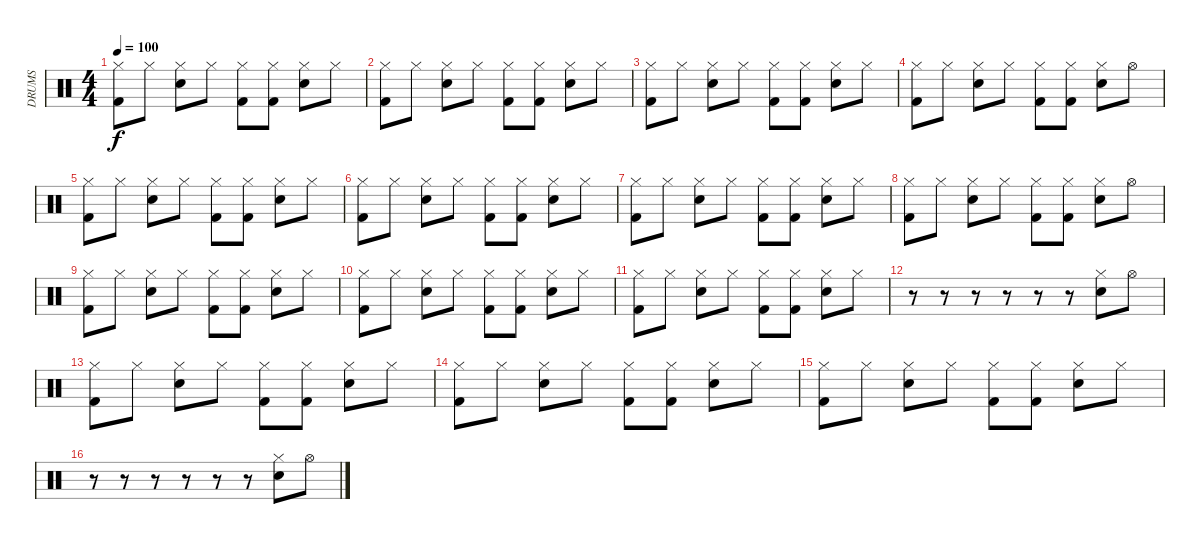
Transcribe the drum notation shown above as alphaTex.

\track ("DRUMS" "DRUMS") {instrument percussion}
\staff {score}
\articulation defaults
\ts (4 4)
\tempo 100
\clef neutral
\ks c
("Hi-Hat (closed)" "Kick (hit) 2").8{dy f} "Hi-Hat (closed)".8 ("Hi-Hat (closed)" "Snare (hit) 2").8 "Hi-Hat (closed)".8 ("Hi-Hat (closed)" "Kick (hit) 2").8 ("Hi-Hat (closed)" "Kick (hit) 2").8 ("Hi-Hat (closed)" "Snare (hit) 2").8 "Hi-Hat (closed)".8 |
("Hi-Hat (closed)" "Kick (hit) 2").8 "Hi-Hat (closed)".8 ("Hi-Hat (closed)" "Snare (hit) 2").8 "Hi-Hat (closed)".8 ("Hi-Hat (closed)" "Kick (hit) 2").8 ("Hi-Hat (closed)" "Kick (hit) 2").8 ("Hi-Hat (closed)" "Snare (hit) 2").8 "Hi-Hat (closed)".8 |
("Hi-Hat (closed)" "Kick (hit) 2").8 "Hi-Hat (closed)".8 ("Hi-Hat (closed)" "Snare (hit) 2").8 "Hi-Hat (closed)".8 ("Hi-Hat (closed)" "Kick (hit) 2").8 ("Hi-Hat (closed)" "Kick (hit) 2").8 ("Hi-Hat (closed)" "Snare (hit) 2").8 "Hi-Hat (closed)".8 |
("Hi-Hat (closed)" "Kick (hit) 2").8 "Hi-Hat (closed)".8 ("Hi-Hat (closed)" "Snare (hit) 2").8 "Hi-Hat (closed)".8 ("Hi-Hat (closed)" "Kick (hit) 2").8 ("Hi-Hat (closed)" "Kick (hit) 2").8 ("Hi-Hat (closed)" "Snare (hit) 2").8 "Hi-Hat (open)".8 |
("Hi-Hat (closed)" "Kick (hit) 2").8 "Hi-Hat (closed)".8 ("Hi-Hat (closed)" "Snare (hit) 2").8 "Hi-Hat (closed)".8 ("Hi-Hat (closed)" "Kick (hit) 2").8 ("Hi-Hat (closed)" "Kick (hit) 2").8 ("Hi-Hat (closed)" "Snare (hit) 2").8 "Hi-Hat (closed)".8 |
("Hi-Hat (closed)" "Kick (hit) 2").8 "Hi-Hat (closed)".8 ("Hi-Hat (closed)" "Snare (hit) 2").8 "Hi-Hat (closed)".8 ("Hi-Hat (closed)" "Kick (hit) 2").8 ("Hi-Hat (closed)" "Kick (hit) 2").8 ("Hi-Hat (closed)" "Snare (hit) 2").8 "Hi-Hat (closed)".8 |
("Hi-Hat (closed)" "Kick (hit) 2").8 "Hi-Hat (closed)".8 ("Hi-Hat (closed)" "Snare (hit) 2").8 "Hi-Hat (closed)".8 ("Hi-Hat (closed)" "Kick (hit) 2").8 ("Hi-Hat (closed)" "Kick (hit) 2").8 ("Hi-Hat (closed)" "Snare (hit) 2").8 "Hi-Hat (closed)".8 |
("Hi-Hat (closed)" "Kick (hit) 2").8 "Hi-Hat (closed)".8 ("Hi-Hat (closed)" "Snare (hit) 2").8 "Hi-Hat (closed)".8 ("Hi-Hat (closed)" "Kick (hit) 2").8 ("Hi-Hat (closed)" "Kick (hit) 2").8 ("Hi-Hat (closed)" "Snare (hit) 2").8 "Hi-Hat (open)".8 |
("Hi-Hat (closed)" "Kick (hit) 2").8 "Hi-Hat (closed)".8 ("Hi-Hat (closed)" "Snare (hit) 2").8 "Hi-Hat (closed)".8 ("Hi-Hat (closed)" "Kick (hit) 2").8 ("Hi-Hat (closed)" "Kick (hit) 2").8 ("Hi-Hat (closed)" "Snare (hit) 2").8 "Hi-Hat (closed)".8 |
("Hi-Hat (closed)" "Kick (hit) 2").8 "Hi-Hat (closed)".8 ("Hi-Hat (closed)" "Snare (hit) 2").8 "Hi-Hat (closed)".8 ("Hi-Hat (closed)" "Kick (hit) 2").8 ("Hi-Hat (closed)" "Kick (hit) 2").8 ("Hi-Hat (closed)" "Snare (hit) 2").8 "Hi-Hat (closed)".8 |
("Hi-Hat (closed)" "Kick (hit) 2").8 "Hi-Hat (closed)".8 ("Hi-Hat (closed)" "Snare (hit) 2").8 "Hi-Hat (closed)".8 ("Hi-Hat (closed)" "Kick (hit) 2").8 ("Hi-Hat (closed)" "Kick (hit) 2").8 ("Hi-Hat (closed)" "Snare (hit) 2").8 "Hi-Hat (closed)".8 |
r.8 r.8 r.8 r.8 r.8 r.8 ("Hi-Hat (closed)" "Snare (hit) 2").8 "Hi-Hat (open)".8 |
("Hi-Hat (closed)" "Kick (hit) 2").8 "Hi-Hat (closed)".8 ("Hi-Hat (closed)" "Snare (hit) 2").8 "Hi-Hat (closed)".8 ("Hi-Hat (closed)" "Kick (hit) 2").8 ("Hi-Hat (closed)" "Kick (hit) 2").8 ("Hi-Hat (closed)" "Snare (hit) 2").8 "Hi-Hat (closed)".8 |
("Hi-Hat (closed)" "Kick (hit) 2").8 "Hi-Hat (closed)".8 ("Hi-Hat (closed)" "Snare (hit) 2").8 "Hi-Hat (closed)".8 ("Hi-Hat (closed)" "Kick (hit) 2").8 ("Hi-Hat (closed)" "Kick (hit) 2").8 ("Hi-Hat (closed)" "Snare (hit) 2").8 "Hi-Hat (closed)".8 |
("Hi-Hat (closed)" "Kick (hit) 2").8 "Hi-Hat (closed)".8 ("Hi-Hat (closed)" "Snare (hit) 2").8 "Hi-Hat (closed)".8 ("Hi-Hat (closed)" "Kick (hit) 2").8 ("Hi-Hat (closed)" "Kick (hit) 2").8 ("Hi-Hat (closed)" "Snare (hit) 2").8 "Hi-Hat (closed)".8 |
r.8 r.8 r.8 r.8 r.8 r.8 ("Hi-Hat (closed)" "Snare (hit) 2").8 "Hi-Hat (open)".8
